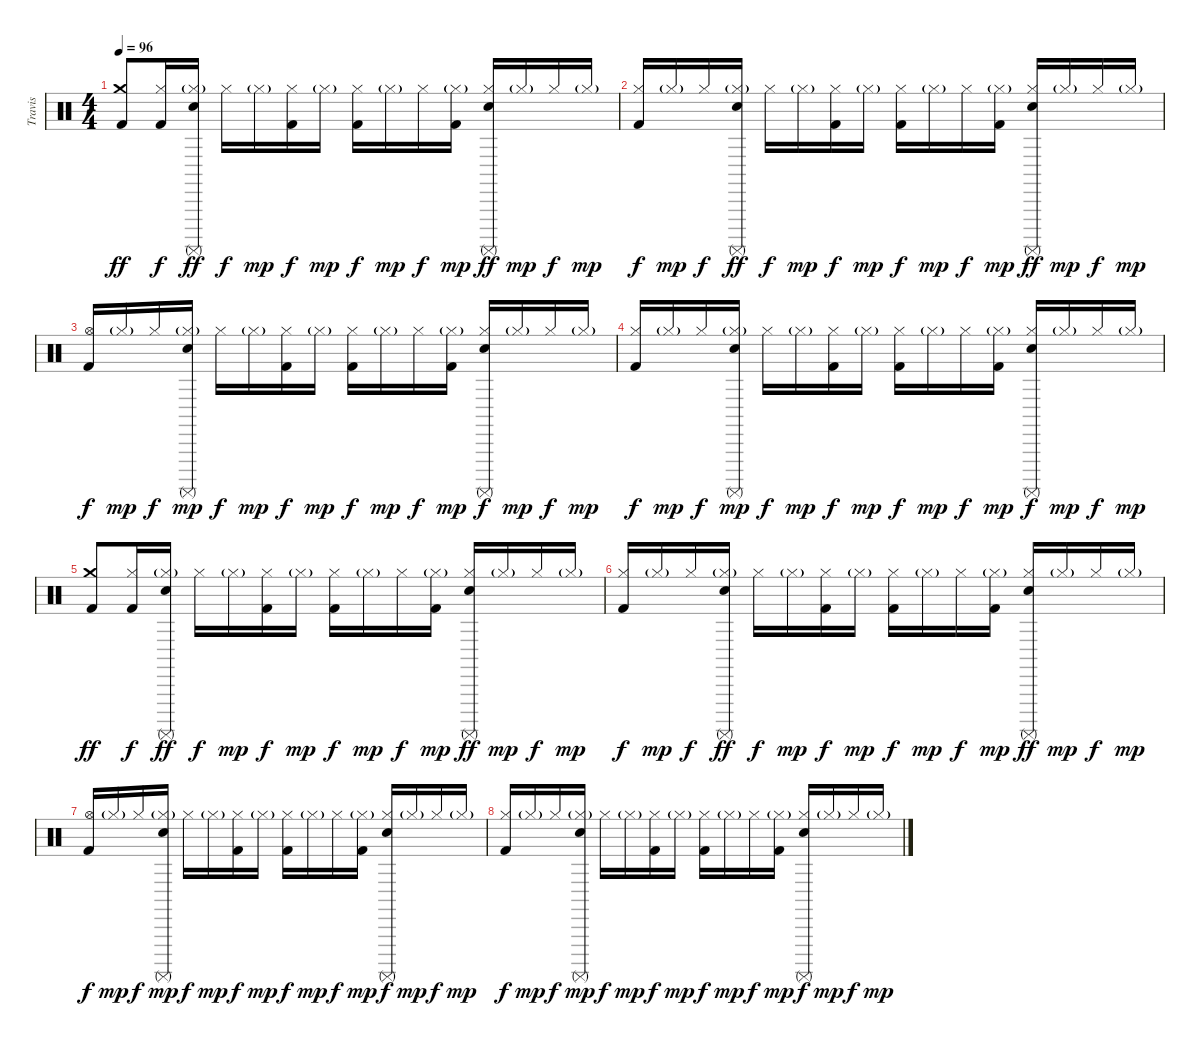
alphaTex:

\track ("Travis" "Travis") {instrument percussion bank 127}
\staff {score}
\articulation defaults
\ts (4 4)
\tempo 96
\clef neutral
\ks c
("Crash medium (hit)" "Kick (hit) 2").8{dy ff} ("Hi-Hat (closed)" "Kick (hit) 2").16{dy f} ("Hi-Hat (closed)"{g} "Electric Snare (hit)" "Surdo (mute)").16{dy ff} "Hi-Hat (closed)".16{dy f} "Hi-Hat (closed)"{g}.16{dy mp} ("Hi-Hat (closed)" "Kick (hit) 2").16{dy f} "Hi-Hat (closed)"{g}.16{dy mp} ("Hi-Hat (closed)" "Kick (hit) 2").16{dy f} "Hi-Hat (closed)"{g}.16{dy mp} "Hi-Hat (closed)".16{dy f} ("Hi-Hat (closed)"{g} "Kick (hit) 2").16{dy mp} ("Hi-Hat (closed)" "Electric Snare (hit)" "Surdo (mute)").16{dy ff} "Hi-Hat (closed)"{g}.16{dy mp} "Hi-Hat (closed)".16{dy f} "Hi-Hat (closed)"{g}.16{dy mp} |
("Hi-Hat (closed)" "Kick (hit) 2").16{dy f} "Hi-Hat (closed)"{g}.16{dy mp} "Hi-Hat (closed)".16{dy f} ("Hi-Hat (closed)"{g} "Electric Snare (hit)" "Surdo (mute)").16{dy ff} "Hi-Hat (closed)".16{dy f} "Hi-Hat (closed)"{g}.16{dy mp} ("Hi-Hat (closed)" "Kick (hit) 2").16{dy f} "Hi-Hat (closed)"{g}.16{dy mp} ("Hi-Hat (closed)" "Kick (hit) 2").16{dy f} "Hi-Hat (closed)"{g}.16{dy mp} "Hi-Hat (closed)".16{dy f} ("Hi-Hat (closed)"{g} "Kick (hit) 2").16{dy mp} ("Hi-Hat (closed)" "Electric Snare (hit)" "Surdo (mute)").16{dy ff} "Hi-Hat (closed)"{g}.16{dy mp} "Hi-Hat (closed)".16{dy f} "Hi-Hat (closed)"{g}.16{dy mp} |
("Hi-Hat (open)" "Kick (hit) 2").16{dy f} "Hi-Hat (closed)"{g}.16{dy mp} "Hi-Hat (closed)".16{dy f} ("Hi-Hat (closed)"{g} "Electric Snare (hit)" "Surdo (mute)").16{dy mp} "Hi-Hat (closed)".16{dy f} "Hi-Hat (closed)"{g}.16{dy mp} ("Hi-Hat (closed)" "Kick (hit) 2").16{dy f} "Hi-Hat (closed)"{g}.16{dy mp} ("Hi-Hat (closed)" "Kick (hit) 2").16{dy f} "Hi-Hat (closed)"{g}.16{dy mp} "Hi-Hat (closed)".16{dy f} ("Hi-Hat (closed)"{g} "Kick (hit) 2").16{dy mp} ("Hi-Hat (closed)" "Electric Snare (hit)" "Surdo (mute)").16{dy f} "Hi-Hat (closed)"{g}.16{dy mp} "Hi-Hat (closed)".16{dy f} "Hi-Hat (closed)"{g}.16{dy mp} |
("Hi-Hat (closed)" "Kick (hit) 2").16{dy f} "Hi-Hat (closed)"{g}.16{dy mp} "Hi-Hat (closed)".16{dy f} ("Hi-Hat (closed)"{g} "Electric Snare (hit)" "Surdo (mute)").16{dy mp} "Hi-Hat (closed)".16{dy f} "Hi-Hat (closed)"{g}.16{dy mp} ("Hi-Hat (closed)" "Kick (hit) 2").16{dy f} "Hi-Hat (closed)"{g}.16{dy mp} ("Hi-Hat (closed)" "Kick (hit) 2").16{dy f} "Hi-Hat (closed)"{g}.16{dy mp} "Hi-Hat (closed)".16{dy f} ("Hi-Hat (closed)"{g} "Kick (hit) 2").16{dy mp} ("Hi-Hat (closed)" "Electric Snare (hit)" "Surdo (mute)").16{dy f} "Hi-Hat (closed)"{g}.16{dy mp} "Hi-Hat (closed)".16{dy f} "Hi-Hat (closed)"{g}.16{dy mp} |
("Crash medium (hit)" "Kick (hit) 2").8{dy ff} ("Hi-Hat (closed)" "Kick (hit) 2").16{dy f} ("Hi-Hat (closed)"{g} "Electric Snare (hit)" "Surdo (mute)").16{dy ff} "Hi-Hat (closed)".16{dy f} "Hi-Hat (closed)"{g}.16{dy mp} ("Hi-Hat (closed)" "Kick (hit) 2").16{dy f} "Hi-Hat (closed)"{g}.16{dy mp} ("Hi-Hat (closed)" "Kick (hit) 2").16{dy f} "Hi-Hat (closed)"{g}.16{dy mp} "Hi-Hat (closed)".16{dy f} ("Hi-Hat (closed)"{g} "Kick (hit) 2").16{dy mp} ("Hi-Hat (closed)" "Electric Snare (hit)" "Surdo (mute)").16{dy ff} "Hi-Hat (closed)"{g}.16{dy mp} "Hi-Hat (closed)".16{dy f} "Hi-Hat (closed)"{g}.16{dy mp} |
("Hi-Hat (closed)" "Kick (hit) 2").16{dy f} "Hi-Hat (closed)"{g}.16{dy mp} "Hi-Hat (closed)".16{dy f} ("Hi-Hat (closed)"{g} "Electric Snare (hit)" "Surdo (mute)").16{dy ff} "Hi-Hat (closed)".16{dy f} "Hi-Hat (closed)"{g}.16{dy mp} ("Hi-Hat (closed)" "Kick (hit) 2").16{dy f} "Hi-Hat (closed)"{g}.16{dy mp} ("Hi-Hat (closed)" "Kick (hit) 2").16{dy f} "Hi-Hat (closed)"{g}.16{dy mp} "Hi-Hat (closed)".16{dy f} ("Hi-Hat (closed)"{g} "Kick (hit) 2").16{dy mp} ("Hi-Hat (closed)" "Electric Snare (hit)" "Surdo (mute)").16{dy ff} "Hi-Hat (closed)"{g}.16{dy mp} "Hi-Hat (closed)".16{dy f} "Hi-Hat (closed)"{g}.16{dy mp} |
("Hi-Hat (open)" "Kick (hit) 2").16{dy f} "Hi-Hat (closed)"{g}.16{dy mp} "Hi-Hat (closed)".16{dy f} ("Hi-Hat (closed)"{g} "Electric Snare (hit)" "Surdo (mute)").16{dy mp} "Hi-Hat (closed)".16{dy f} "Hi-Hat (closed)"{g}.16{dy mp} ("Hi-Hat (closed)" "Kick (hit) 2").16{dy f} "Hi-Hat (closed)"{g}.16{dy mp} ("Hi-Hat (closed)" "Kick (hit) 2").16{dy f} "Hi-Hat (closed)"{g}.16{dy mp} "Hi-Hat (closed)".16{dy f} ("Hi-Hat (closed)"{g} "Kick (hit) 2").16{dy mp} ("Hi-Hat (closed)" "Electric Snare (hit)" "Surdo (mute)").16{dy f} "Hi-Hat (closed)"{g}.16{dy mp} "Hi-Hat (closed)".16{dy f} "Hi-Hat (closed)"{g}.16{dy mp} |
("Hi-Hat (closed)" "Kick (hit) 2").16{dy f} "Hi-Hat (closed)"{g}.16{dy mp} "Hi-Hat (closed)".16{dy f} ("Hi-Hat (closed)"{g} "Electric Snare (hit)" "Surdo (mute)").16{dy mp} "Hi-Hat (closed)".16{dy f} "Hi-Hat (closed)"{g}.16{dy mp} ("Hi-Hat (closed)" "Kick (hit) 2").16{dy f} "Hi-Hat (closed)"{g}.16{dy mp} ("Hi-Hat (closed)" "Kick (hit) 2").16{dy f} "Hi-Hat (closed)"{g}.16{dy mp} "Hi-Hat (closed)".16{dy f} ("Hi-Hat (closed)"{g} "Kick (hit) 2").16{dy mp} ("Hi-Hat (closed)" "Electric Snare (hit)" "Surdo (mute)").16{dy f} "Hi-Hat (closed)"{g}.16{dy mp} "Hi-Hat (closed)".16{dy f} "Hi-Hat (closed)"{g}.16{dy mp}
